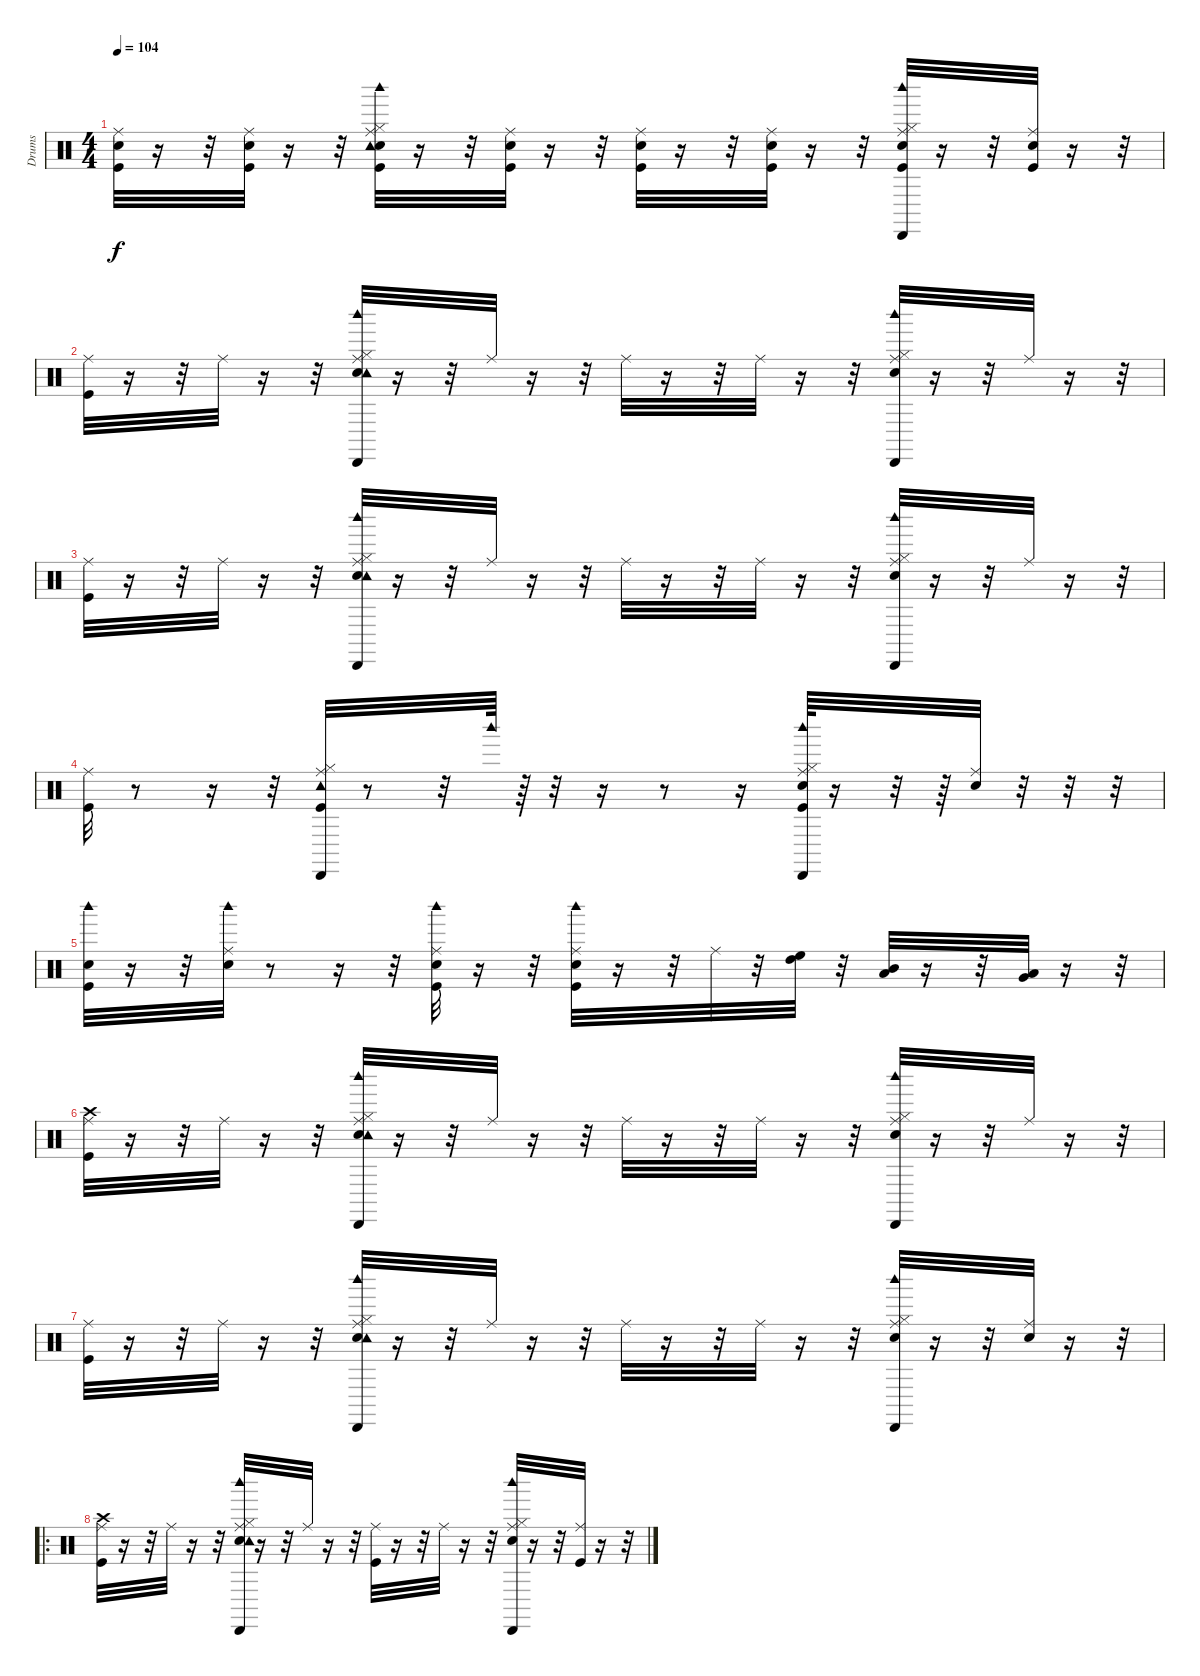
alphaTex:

\track ("Drums" "Drums") {instrument percussion}
\staff {score}
\articulation defaults
\ts (4 4)
\tempo 104
\clef neutral
\ks c
("Kick (hit)" "Snare (hit) 2" "Ride (middle)").32{dy f} r.16 r.32 ("Kick (hit)" "Snare (hit) 2" "Ride (middle)").32 r.16 r.32 ("Kick (hit)" "Snare (hit) 2" "Hi-Hat (closed)" "Ride (middle)" "Tambourine (hit)" "Woodblock high (hit)").32 r.16 r.32 ("Kick (hit)" "Snare (hit) 2" "Ride (middle)").32 r.16 r.32 ("Kick (hit)" "Snare (hit) 2" "Ride (middle)").32 r.16 r.32 ("Kick (hit)" "Snare (hit) 2" "Ride (middle)").32 r.16 r.32 ("Kick (hit)" "Snare (hit) 2" "Hi-Hat (closed)" "Ride (middle)" "Cabasa (hit)" "Woodblock high (hit)").32 r.16 r.32 ("Kick (hit)" "Snare (hit) 2" "Ride (middle)").32 r.16 r.32 |
("Kick (hit)" "Ride (middle)").32 r.16 r.32 "Ride (middle)".32 r.16 r.32 ("Snare (hit) 2" "Hi-Hat (closed)" "Ride (middle)" "Tambourine (hit)" "Cabasa (hit)" "Woodblock high (hit)").32 r.16 r.32 "Ride (middle)".32 r.16 r.32 "Ride (middle)".32 r.16 r.32 "Ride (middle)".32 r.16 r.32 ("Snare (hit) 2" "Hi-Hat (closed)" "Ride (middle)" "Cabasa (hit)" "Woodblock high (hit)").32 r.16 r.32 "Ride (middle)".32 r.16 r.32 |
("Kick (hit)" "Ride (middle)").32 r.16 r.32 "Ride (middle)".32 r.16 r.32 ("Snare (hit) 2" "Hi-Hat (closed)" "Ride (middle)" "Tambourine (hit)" "Cabasa (hit)" "Woodblock high (hit)").32 r.16 r.32 "Ride (middle)".32 r.16 r.32 "Ride (middle)".32 r.16 r.32 "Ride (middle)".32 r.16 r.32 ("Snare (hit) 2" "Hi-Hat (closed)" "Ride (middle)" "Cabasa (hit)" "Woodblock high (hit)").32 r.16 r.32 "Ride (middle)".32 r.16 r.32 |
("Kick (hit)" "Ride (middle)").32 r.8 r.16 r.32 ("Kick (hit)" "Hi-Hat (closed)" "Ride (middle)" "Tambourine (hit)" "Cabasa (hit)").32 r.8 r.32 "Woodblock high (hit)".64 r.64 r.32 r.16 r.8 r.16 ("Kick (hit)" "Snare (hit) 2" "Hi-Hat (closed)" "Ride (middle)" "Cabasa (hit)" "Woodblock high (hit)").64 r.16 r.32 r.64 ("Snare (hit) 2" "Ride (middle)").32 r.32 r.32 r.32 |
("Kick (hit)" "Snare (hit) 2" "Woodblock high (hit)").32 r.16 r.32 ("Snare (hit) 2" "Ride (middle)" "Woodblock high (hit)").32 r.8 r.16 r.32 ("Kick (hit)" "Snare (hit) 2" "Ride (middle)" "Woodblock high (hit)").32 r.16 r.32 ("Kick (hit)" "Snare (hit) 2" "Ride (middle)" "Woodblock high (hit)").32 r.16 r.32 "Ride (middle)".32 r.32 ("High Tom (hit)" "High Floor Tom (hit)").32 r.32 ("Low Tom (hit)" "Mid Tom (hit)").32 r.16 r.32 ("Low Floor Tom (hit)" "Very Low Tom (hit)").32 r.16 r.32 |
("Kick (hit)" "Crash high (hit)" "Ride (middle)").32 r.16 r.32 "Ride (middle)".32 r.16 r.32 ("Snare (hit) 2" "Hi-Hat (closed)" "Ride (middle)" "Tambourine (hit)" "Cabasa (hit)" "Woodblock high (hit)").32 r.16 r.32 "Ride (middle)".32 r.16 r.32 "Ride (middle)".32 r.16 r.32 "Ride (middle)".32 r.16 r.32 ("Snare (hit) 2" "Hi-Hat (closed)" "Ride (middle)" "Cabasa (hit)" "Woodblock high (hit)").32 r.16 r.32 "Ride (middle)".32 r.16 r.32 |
("Kick (hit)" "Ride (middle)").32 r.16 r.32 "Ride (middle)".32 r.16 r.32 ("Snare (hit) 2" "Hi-Hat (closed)" "Ride (middle)" "Tambourine (hit)" "Cabasa (hit)" "Woodblock high (hit)").32 r.16 r.32 "Ride (middle)".32 r.16 r.32 "Ride (middle)".32 r.16 r.32 "Ride (middle)".32 r.16 r.32 ("Snare (hit) 2" "Hi-Hat (closed)" "Ride (middle)" "Cabasa (hit)" "Woodblock high (hit)").32 r.16 r.32 ("Snare (hit) 2" "Ride (middle)").32 r.16 r.32 |
\ro
("Kick (hit)" "Crash high (hit)" "Ride (middle)").32 r.16 r.32 "Ride (middle)".32 r.16 r.32 ("Snare (hit) 2" "Hi-Hat (closed)" "Ride (middle)" "Tambourine (hit)" "Cabasa (hit)" "Woodblock high (hit)").32 r.16 r.32 "Ride (middle)".32 r.16 r.32 ("Kick (hit)" "Ride (middle)").32 r.16 r.32 "Ride (middle)".32 r.16 r.32 ("Snare (hit) 2" "Hi-Hat (closed)" "Ride (middle)" "Cabasa (hit)" "Woodblock high (hit)").32 r.16 r.32 ("Kick (hit)" "Ride (middle)").32 r.16 r.32
